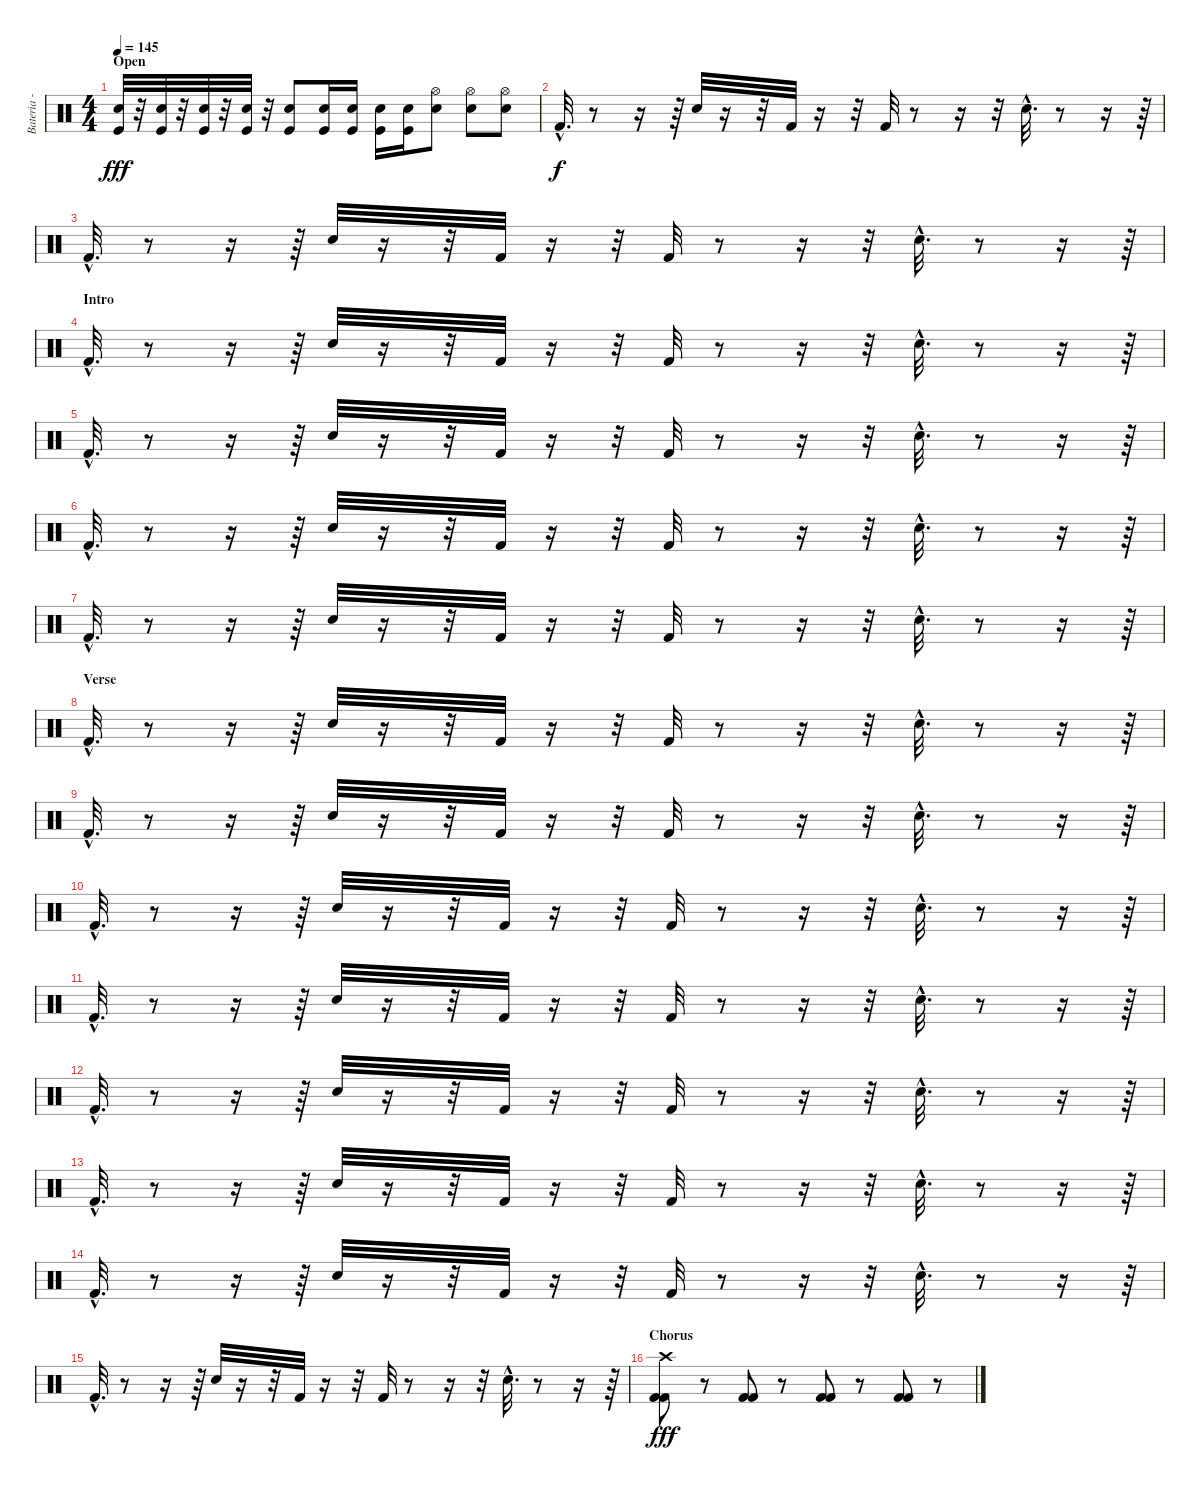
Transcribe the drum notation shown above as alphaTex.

\track ("Bateria - Larzon" "Bateria - ") {instrument percussion}
\staff {score}
\articulation defaults
\ts (4 4)
\section ("" "Open")
\tempo 145
\clef neutral
\ks c
("Snare (hit) 2" "Kick (hit)").32{dy fff} r.32 ("Snare (hit) 2" "Kick (hit)").32 r.32 ("Snare (hit) 2" "Kick (hit)").32 r.32 ("Snare (hit) 2" "Kick (hit)").32 r.32 ("Electric Snare (hit)" "Kick (hit)").8 ("Electric Snare (hit)" "Kick (hit)").16 ("Electric Snare (hit)" "Kick (hit)").16 ("Electric Snare (hit)" "Kick (hit)").16 ("Electric Snare (hit)" "Kick (hit)").16 ("Hi-Hat (open)" "Electric Snare (hit)").8 ("Hi-Hat (open)" "Electric Snare (hit)").8 ("Hi-Hat (open)" "Electric Snare (hit)").8 |
"Kick (hit) 2"{hac}.32{d dy f} r.8 r.16 r.64 "Snare (hit) 2".32 r.16 r.32 "Kick (hit) 2".32 r.16 r.32 "Kick (hit) 2".32 r.8 r.16 r.32 "Snare (hit) 2"{hac}.32{d} r.8 r.16 r.64 |
"Kick (hit) 2"{hac}.32{d} r.8 r.16 r.64 "Snare (hit) 2".32 r.16 r.32 "Kick (hit) 2".32 r.16 r.32 "Kick (hit) 2".32 r.8 r.16 r.32 "Snare (hit) 2"{hac}.32{d} r.8 r.16 r.64 |
\section ("" "Intro")
"Kick (hit) 2"{hac}.32{d} r.8 r.16 r.64 "Snare (hit) 2".32 r.16 r.32 "Kick (hit) 2".32 r.16 r.32 "Kick (hit) 2".32 r.8 r.16 r.32 "Snare (hit) 2"{hac}.32{d} r.8 r.16 r.64 |
"Kick (hit) 2"{hac}.32{d} r.8 r.16 r.64 "Snare (hit) 2".32 r.16 r.32 "Kick (hit) 2".32 r.16 r.32 "Kick (hit) 2".32 r.8 r.16 r.32 "Snare (hit) 2"{hac}.32{d} r.8 r.16 r.64 |
"Kick (hit) 2"{hac}.32{d} r.8 r.16 r.64 "Snare (hit) 2".32 r.16 r.32 "Kick (hit) 2".32 r.16 r.32 "Kick (hit) 2".32 r.8 r.16 r.32 "Snare (hit) 2"{hac}.32{d} r.8 r.16 r.64 |
"Kick (hit) 2"{hac}.32{d} r.8 r.16 r.64 "Snare (hit) 2".32 r.16 r.32 "Kick (hit) 2".32 r.16 r.32 "Kick (hit) 2".32 r.8 r.16 r.32 "Snare (hit) 2"{hac}.32{d} r.8 r.16 r.64 |
\section ("" "Verse")
"Kick (hit) 2"{hac}.32{d} r.8 r.16 r.64 "Snare (hit) 2".32 r.16 r.32 "Kick (hit) 2".32 r.16 r.32 "Kick (hit) 2".32 r.8 r.16 r.32 "Snare (hit) 2"{hac}.32{d} r.8 r.16 r.64 |
"Kick (hit) 2"{hac}.32{d} r.8 r.16 r.64 "Snare (hit) 2".32 r.16 r.32 "Kick (hit) 2".32 r.16 r.32 "Kick (hit) 2".32 r.8 r.16 r.32 "Snare (hit) 2"{hac}.32{d} r.8 r.16 r.64 |
"Kick (hit) 2"{hac}.32{d} r.8 r.16 r.64 "Snare (hit) 2".32 r.16 r.32 "Kick (hit) 2".32 r.16 r.32 "Kick (hit) 2".32 r.8 r.16 r.32 "Snare (hit) 2"{hac}.32{d} r.8 r.16 r.64 |
"Kick (hit) 2"{hac}.32{d} r.8 r.16 r.64 "Snare (hit) 2".32 r.16 r.32 "Kick (hit) 2".32 r.16 r.32 "Kick (hit) 2".32 r.8 r.16 r.32 "Snare (hit) 2"{hac}.32{d} r.8 r.16 r.64 |
"Kick (hit) 2"{hac}.32{d} r.8 r.16 r.64 "Snare (hit) 2".32 r.16 r.32 "Kick (hit) 2".32 r.16 r.32 "Kick (hit) 2".32 r.8 r.16 r.32 "Snare (hit) 2"{hac}.32{d} r.8 r.16 r.64 |
"Kick (hit) 2"{hac}.32{d} r.8 r.16 r.64 "Snare (hit) 2".32 r.16 r.32 "Kick (hit) 2".32 r.16 r.32 "Kick (hit) 2".32 r.8 r.16 r.32 "Snare (hit) 2"{hac}.32{d} r.8 r.16 r.64 |
"Kick (hit) 2"{hac}.32{d} r.8 r.16 r.64 "Snare (hit) 2".32 r.16 r.32 "Kick (hit) 2".32 r.16 r.32 "Kick (hit) 2".32 r.8 r.16 r.32 "Snare (hit) 2"{hac}.32{d} r.8 r.16 r.64 |
"Kick (hit) 2"{hac}.32{d} r.8 r.16 r.64 "Snare (hit) 2".32 r.16 r.32 "Kick (hit) 2".32 r.16 r.32 "Kick (hit) 2".32 r.8 r.16 r.32 "Snare (hit) 2"{hac}.32{d} r.8 r.16 r.64 |
\section ("" "Chorus")
("Kick (hit) 2" "Kick (hit) 2" "Crash high (hit)").8{dy fff} r.8 ("Kick (hit) 2" "Kick (hit) 2").8 r.8 ("Kick (hit) 2" "Kick (hit) 2").8 r.8 ("Kick (hit) 2" "Kick (hit) 2").8 r.8
